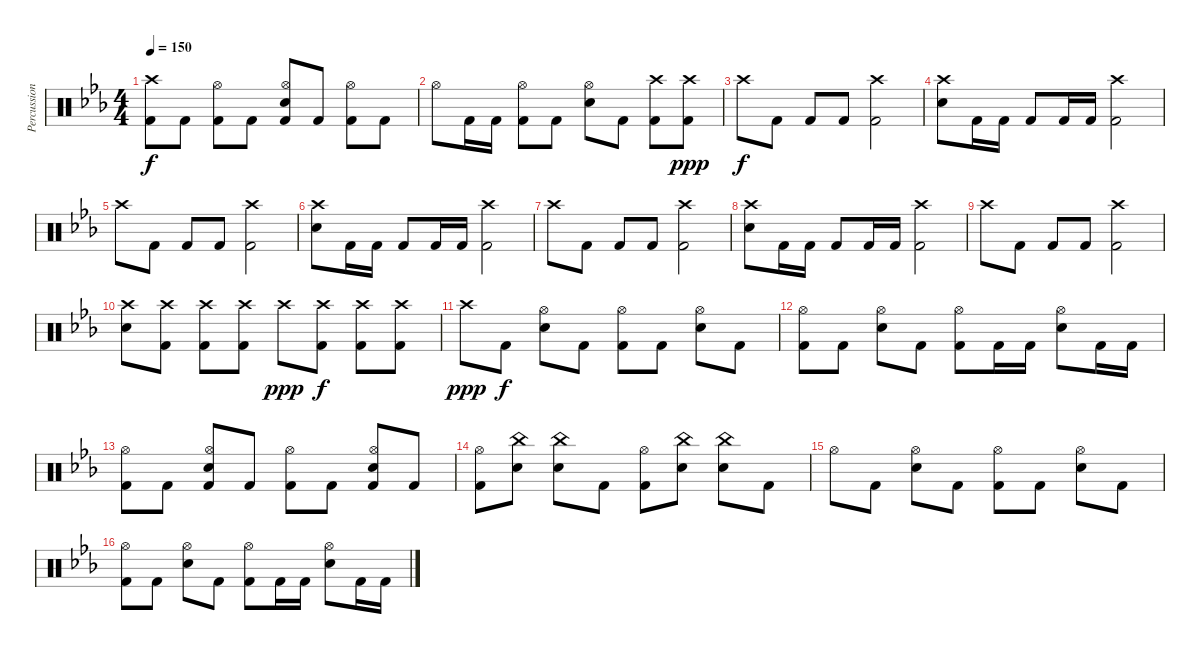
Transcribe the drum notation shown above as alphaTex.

\track ("Percussion" "Percussion") {instrument percussion}
\staff {score}
\articulation defaults
\ts (4 4)
\tempo 150
\clef neutral
\ks cminor
("Crash high (hit)" "Kick (hit) 2").8{dy f} "Kick (hit) 2".8 ("Hi-Hat (open)" "Kick (hit) 2").8 "Kick (hit) 2".8 ("Hi-Hat (open)" "Electric Snare (hit)" "Kick (hit) 2").8 "Kick (hit) 2".8 ("Hi-Hat (open)" "Kick (hit) 2").8 "Kick (hit) 2".8 |
"Hi-Hat (open)".8 "Kick (hit) 2".16 "Kick (hit) 2".16 ("Hi-Hat (open)" "Kick (hit) 2").8 "Kick (hit) 2".8 ("Hi-Hat (open)" "Electric Snare (hit)").8 "Kick (hit) 2".8 ("Crash high (hit)" "Kick (hit) 2").8 ("Crash high (hit)" "Kick (hit) 2").8{dy ppp} |
"Crash high (hit)".8{dy f} "Kick (hit) 2".8 "Kick (hit) 2".8 "Kick (hit) 2".8 ("Crash high (hit)" "Kick (hit) 2").2 |
("Crash high (hit)" "Electric Snare (hit)").8 "Kick (hit) 2".16 "Kick (hit) 2".16 "Kick (hit) 2".8 "Kick (hit) 2".16 "Kick (hit) 2".16 ("Crash high (hit)" "Kick (hit) 2").2 |
"Crash high (hit)".8 "Kick (hit) 2".8 "Kick (hit) 2".8 "Kick (hit) 2".8 ("Crash high (hit)" "Kick (hit) 2").2 |
("Crash high (hit)" "Electric Snare (hit)").8 "Kick (hit) 2".16 "Kick (hit) 2".16 "Kick (hit) 2".8 "Kick (hit) 2".16 "Kick (hit) 2".16 ("Crash high (hit)" "Kick (hit) 2").2 |
"Crash high (hit)".8 "Kick (hit) 2".8 "Kick (hit) 2".8 "Kick (hit) 2".8 ("Crash high (hit)" "Kick (hit) 2").2 |
("Crash high (hit)" "Electric Snare (hit)").8 "Kick (hit) 2".16 "Kick (hit) 2".16 "Kick (hit) 2".8 "Kick (hit) 2".16 "Kick (hit) 2".16 ("Crash high (hit)" "Kick (hit) 2").2 |
"Crash high (hit)".8 "Kick (hit) 2".8 "Kick (hit) 2".8 "Kick (hit) 2".8 ("Crash high (hit)" "Kick (hit) 2").2 |
("Crash high (hit)" "Electric Snare (hit)").8 ("Crash high (hit)" "Kick (hit) 2").8 ("Crash high (hit)" "Kick (hit) 2").8 ("Crash high (hit)" "Kick (hit) 2").8 "Crash high (hit)".8{dy ppp} ("Crash high (hit)" "Kick (hit) 2").8{dy f} ("Crash high (hit)" "Kick (hit) 2").8 ("Crash high (hit)" "Kick (hit) 2").8 |
"Crash high (hit)".8{dy ppp} "Kick (hit) 2".8{dy f} ("Hi-Hat (open)" "Electric Snare (hit)").8 "Kick (hit) 2".8 ("Hi-Hat (open)" "Kick (hit) 2").8 "Kick (hit) 2".8 ("Hi-Hat (open)" "Electric Snare (hit)").8 "Kick (hit) 2".8 |
("Hi-Hat (open)" "Kick (hit) 2").8 "Kick (hit) 2".8 ("Hi-Hat (open)" "Electric Snare (hit)").8 "Kick (hit) 2".8 ("Hi-Hat (open)" "Kick (hit) 2").8 "Kick (hit) 2".16 "Kick (hit) 2".16 ("Hi-Hat (open)" "Electric Snare (hit)").8 "Kick (hit) 2".16 "Kick (hit) 2".16 |
("Hi-Hat (open)" "Kick (hit) 2").8 "Kick (hit) 2".8 ("Hi-Hat (open)" "Electric Snare (hit)" "Kick (hit) 2").8 "Kick (hit) 2".8 ("Hi-Hat (open)" "Kick (hit) 2").8 "Kick (hit) 2".8 ("Hi-Hat (open)" "Electric Snare (hit)" "Kick (hit) 2").8 "Kick (hit) 2".8 |
("Hi-Hat (open)" "Kick (hit) 2").8 ("China (hit)" "Electric Snare (hit)").8 ("China (hit)" "Electric Snare (hit)").8 "Kick (hit) 2".8 ("Hi-Hat (open)" "Kick (hit) 2").8 ("China (hit)" "Electric Snare (hit)").8 ("China (hit)" "Electric Snare (hit)").8 "Kick (hit) 2".8 |
"Hi-Hat (open)".8 "Kick (hit) 2".8 ("Hi-Hat (open)" "Electric Snare (hit)").8 "Kick (hit) 2".8 ("Hi-Hat (open)" "Kick (hit) 2").8 "Kick (hit) 2".8 ("Hi-Hat (open)" "Electric Snare (hit)").8 "Kick (hit) 2".8 |
("Hi-Hat (open)" "Kick (hit) 2").8 "Kick (hit) 2".8 ("Hi-Hat (open)" "Electric Snare (hit)").8 "Kick (hit) 2".8 ("Hi-Hat (open)" "Kick (hit) 2").8 "Kick (hit) 2".16 "Kick (hit) 2".16 ("Hi-Hat (open)" "Electric Snare (hit)").8 "Kick (hit) 2".16 "Kick (hit) 2".16
